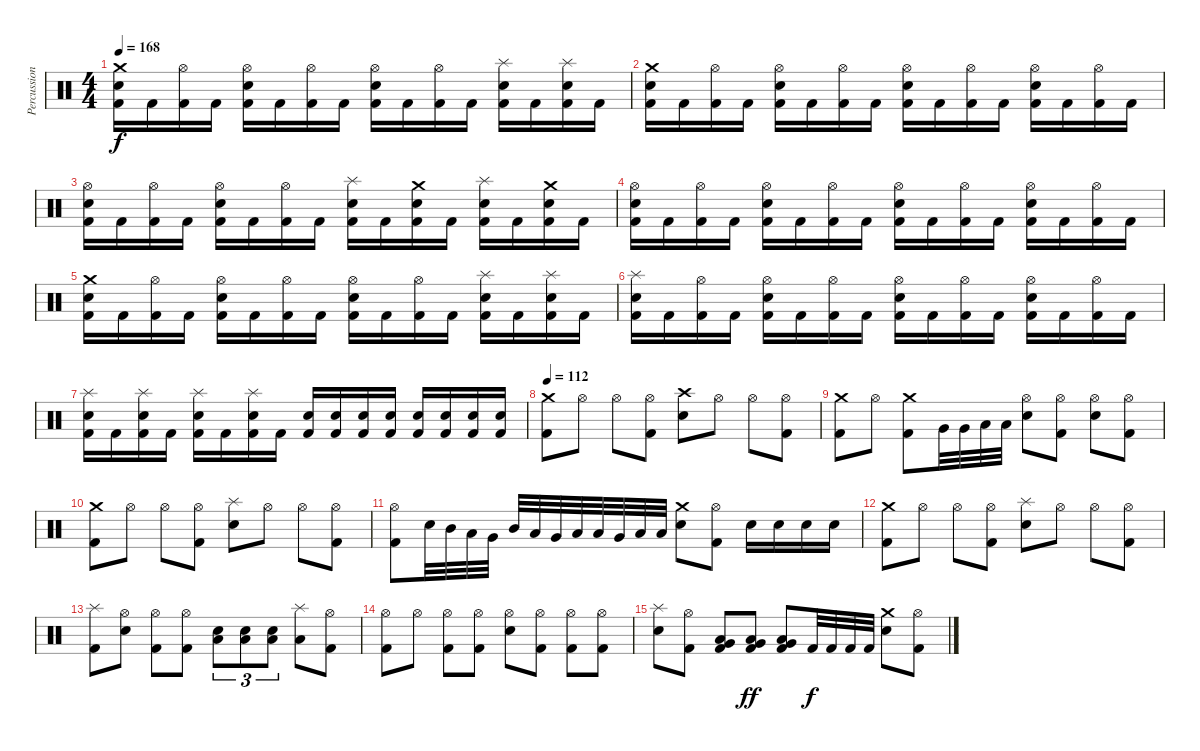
\track ("Percussion" "Percussion") {instrument percussion}
\staff {score}
\articulation defaults
\ts (4 4)
\tempo 168
\clef neutral
\ks c
("Crash medium (hit)" "Snare (hit) 2" "Kick (hit) 2").16{dy f} "Kick (hit) 2".16 ("Hi-Hat (open)" "Kick (hit) 2").16 "Kick (hit) 2".16 ("Hi-Hat (open)" "Snare (hit) 2" "Kick (hit) 2").16 "Kick (hit) 2".16 ("Hi-Hat (open)" "Kick (hit) 2").16 "Kick (hit) 2".16 ("Hi-Hat (open)" "Snare (hit) 2" "Kick (hit) 2").16 "Kick (hit) 2".16 ("Hi-Hat (open)" "Kick (hit) 2").16 "Kick (hit) 2".16 ("Splash (hit)" "Snare (hit) 2" "Kick (hit) 2").16 "Kick (hit) 2".16 ("Splash (hit)" "Snare (hit) 2" "Kick (hit) 2").16 "Kick (hit) 2".16 |
("Crash medium (hit)" "Snare (hit) 2" "Kick (hit) 2").16 "Kick (hit) 2".16 ("Hi-Hat (open)" "Kick (hit) 2").16 "Kick (hit) 2".16 ("Hi-Hat (open)" "Snare (hit) 2" "Kick (hit) 2").16 "Kick (hit) 2".16 ("Hi-Hat (open)" "Kick (hit) 2").16 "Kick (hit) 2".16 ("Hi-Hat (open)" "Snare (hit) 2" "Kick (hit) 2").16 "Kick (hit) 2".16 ("Hi-Hat (open)" "Kick (hit) 2").16 "Kick (hit) 2".16 ("Hi-Hat (open)" "Snare (hit) 2" "Kick (hit) 2").16 "Kick (hit) 2".16 ("Hi-Hat (open)" "Kick (hit) 2").16 "Kick (hit) 2".16 |
("Hi-Hat (open)" "Snare (hit) 2" "Kick (hit) 2").16 "Kick (hit) 2".16 ("Hi-Hat (open)" "Kick (hit) 2").16 "Kick (hit) 2".16 ("Hi-Hat (open)" "Snare (hit) 2" "Kick (hit) 2").16 "Kick (hit) 2".16 ("Hi-Hat (open)" "Kick (hit) 2").16 "Kick (hit) 2".16 ("Splash (hit)" "Snare (hit) 2" "Kick (hit) 2").16 "Kick (hit) 2".16 ("Crash medium (hit)" "Snare (hit) 2" "Kick (hit) 2").16 "Kick (hit) 2".16 ("Splash (hit)" "Snare (hit) 2" "Kick (hit) 2").16 "Kick (hit) 2".16 ("Crash medium (hit)" "Snare (hit) 2" "Kick (hit) 2").16 "Kick (hit) 2".16 |
("Hi-Hat (open)" "Snare (hit) 2" "Kick (hit) 2").16 "Kick (hit) 2".16 ("Hi-Hat (open)" "Kick (hit) 2").16 "Kick (hit) 2".16 ("Hi-Hat (open)" "Snare (hit) 2" "Kick (hit) 2").16 "Kick (hit) 2".16 ("Hi-Hat (open)" "Kick (hit) 2").16 "Kick (hit) 2".16 ("Hi-Hat (open)" "Snare (hit) 2" "Kick (hit) 2").16 "Kick (hit) 2".16 ("Hi-Hat (open)" "Kick (hit) 2").16 "Kick (hit) 2".16 ("Hi-Hat (open)" "Snare (hit) 2" "Kick (hit) 2").16 "Kick (hit) 2".16 ("Hi-Hat (open)" "Kick (hit) 2").16 "Kick (hit) 2".16 |
("Crash medium (hit)" "Snare (hit) 2" "Kick (hit) 2").16 "Kick (hit) 2".16 ("Hi-Hat (open)" "Kick (hit) 2").16 "Kick (hit) 2".16 ("Hi-Hat (open)" "Snare (hit) 2" "Kick (hit) 2").16 "Kick (hit) 2".16 ("Hi-Hat (open)" "Kick (hit) 2").16 "Kick (hit) 2".16 ("Hi-Hat (open)" "Snare (hit) 2" "Kick (hit) 2").16 "Kick (hit) 2".16 ("Hi-Hat (open)" "Kick (hit) 2").16 "Kick (hit) 2".16 ("Splash (hit)" "Snare (hit) 2" "Kick (hit) 2").16 "Kick (hit) 2".16 ("Splash (hit)" "Snare (hit) 2" "Kick (hit) 2").16 "Kick (hit) 2".16 |
("Splash (hit)" "Snare (hit) 2" "Kick (hit) 2").16 "Kick (hit) 2".16 ("Hi-Hat (open)" "Kick (hit) 2").16 "Kick (hit) 2".16 ("Hi-Hat (open)" "Snare (hit) 2" "Kick (hit) 2").16 "Kick (hit) 2".16 ("Hi-Hat (open)" "Kick (hit) 2").16 "Kick (hit) 2".16 ("Hi-Hat (open)" "Snare (hit) 2" "Kick (hit) 2").16 "Kick (hit) 2".16 ("Hi-Hat (open)" "Kick (hit) 2").16 "Kick (hit) 2".16 ("Hi-Hat (open)" "Snare (hit) 2" "Kick (hit) 2").16 "Kick (hit) 2".16 ("Hi-Hat (open)" "Kick (hit) 2").16 "Kick (hit) 2".16 |
("Splash (hit)" "Snare (hit) 2" "Kick (hit) 2").16 "Kick (hit) 2".16 ("Splash (hit)" "Snare (hit) 2" "Kick (hit) 2").16 "Kick (hit) 2".16 ("Splash (hit)" "Snare (hit) 2" "Kick (hit) 2").16 "Kick (hit) 2".16 ("Splash (hit)" "Snare (hit) 2" "Kick (hit) 2").16 "Kick (hit) 2".16 ("Snare (hit) 2" "Kick (hit) 2").16 ("Snare (hit) 2" "Kick (hit) 2").16 ("Snare (hit) 2" "Kick (hit) 2").16 ("Snare (hit) 2" "Kick (hit) 2").16 ("Snare (hit) 2" "Kick (hit) 2").16 ("Snare (hit) 2" "Kick (hit) 2").16 ("Snare (hit) 2" "Kick (hit) 2").16 ("Snare (hit) 2" "Kick (hit) 2").16 |
\tempo 112
("Crash medium (hit)" "Kick (hit) 2").8 "Hi-Hat (open)".8 "Hi-Hat (open)".8 ("Hi-Hat (open)" "Kick (hit) 2").8 ("Crash high (hit)" "Snare (hit) 2").8 "Hi-Hat (open)".8 "Hi-Hat (open)".8 ("Hi-Hat (open)" "Kick (hit) 2").8 |
("Crash medium (hit)" "Kick (hit) 2").8 "Hi-Hat (open)".8 ("Crash medium (hit)" "Kick (hit) 2").8 "Very Low Tom (hit)".32 "Very Low Tom (hit)".32 "Low Floor Tom (hit)".32 "Low Floor Tom (hit)".32 ("Hi-Hat (open)" "Snare (hit) 2").8 ("Hi-Hat (open)" "Kick (hit) 2").8 ("Hi-Hat (open)" "Snare (hit) 2").8 ("Hi-Hat (open)" "Kick (hit) 2").8 |
("Crash medium (hit)" "Kick (hit) 2").8 "Hi-Hat (open)".8 "Hi-Hat (open)".8 ("Hi-Hat (open)" "Kick (hit) 2").8 ("Splash (hit)" "Snare (hit) 2").8 "Hi-Hat (open)".8 "Hi-Hat (open)".8 ("Hi-Hat (open)" "Kick (hit) 2").8 |
("Hi-Hat (open)" "Kick (hit) 2").8 "Snare (hit) 2".32 "Mid Tom (hit)".32 "Low Tom (hit)".32 "Very Low Tom (hit)".32 "Mid Tom (hit)".32 "Low Tom (hit)".32 "Very Low Tom (hit)".32 "Low Floor Tom (hit)".32 "Low Tom (hit)".32 "Very Low Tom (hit)".32 "Low Floor Tom (hit)".32 "Low Floor Tom (hit)".32 ("Crash medium (hit)" "Snare (hit) 2").8 ("Hi-Hat (open)" "Kick (hit) 2").8 "Snare (hit) 2".16 "Snare (hit) 2".16 "Snare (hit) 2".16 "Snare (hit) 2".16 |
("Crash medium (hit)" "Kick (hit) 2").8 "Hi-Hat (open)".8 "Hi-Hat (open)".8 ("Hi-Hat (open)" "Kick (hit) 2").8 ("Splash (hit)" "Snare (hit) 2").8 "Hi-Hat (open)".8 "Hi-Hat (open)".8 ("Hi-Hat (open)" "Kick (hit) 2").8 |
("Splash (hit)" "Kick (hit) 2").8 ("Hi-Hat (open)" "Snare (hit) 2").8 ("Hi-Hat (open)" "Kick (hit) 2").8 ("Hi-Hat (open)" "Kick (hit) 2").8 ("Snare (hit) 2" "Low Tom (hit)").8{tu (3 2)} ("Snare (hit) 2" "Low Tom (hit)").8{tu (3 2)} ("Snare (hit) 2" "Low Tom (hit)").8{tu (3 2)} ("Splash (hit)" "Low Tom (hit)").8 ("Hi-Hat (open)" "Kick (hit) 2").8 |
("Hi-Hat (open)" "Kick (hit) 2").8 "Hi-Hat (open)".8 ("Hi-Hat (open)" "Kick (hit) 2").8 ("Hi-Hat (open)" "Kick (hit) 2").8 ("Hi-Hat (open)" "Snare (hit) 2").8 ("Hi-Hat (open)" "Kick (hit) 2").8 ("Hi-Hat (open)" "Kick (hit) 2").8 ("Hi-Hat (open)" "Kick (hit) 2").8 |
("Splash (hit)" "Snare (hit) 2").8 ("Hi-Hat (open)" "Kick (hit) 2").8 ("Very Low Tom (hit)" "Low Floor Tom (hit)" "Kick (hit) 2").8 ("Very Low Tom (hit)" "Low Floor Tom (hit)" "Kick (hit) 2").8{dy ff} ("Very Low Tom (hit)" "Low Floor Tom (hit)" "Kick (hit) 2").8 "Kick (hit) 2".32{dy f} "Kick (hit) 2".32 "Kick (hit) 2".32 "Kick (hit) 2".32 ("Crash medium (hit)" "Snare (hit) 2").8 ("Hi-Hat (open)" "Kick (hit) 2").8
